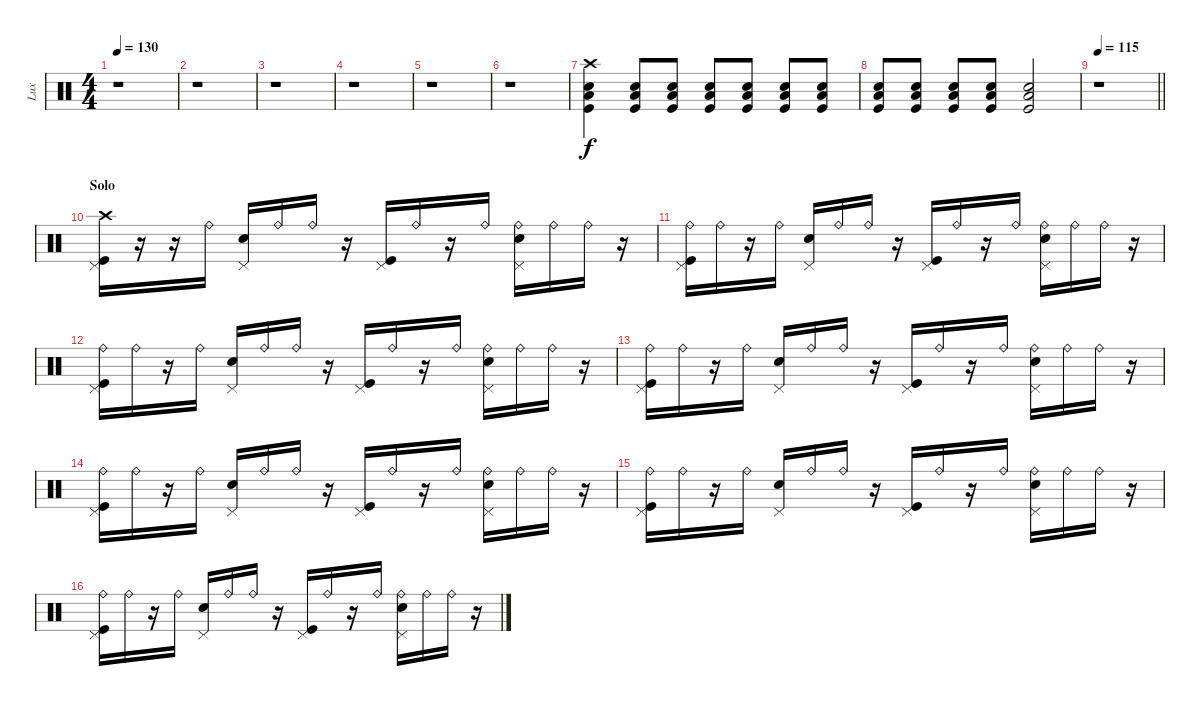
\track ("Lux" "Lux") {instrument percussion}
\staff {score}
\articulation defaults
\ts (4 4)
\tempo 130
\clef neutral
\ks c
r.1{dy fff} |
r.1 |
r.1 |
r.1 |
r.1 |
r.1 |
("Crash high (hit)" "Snare (hit) 2" "Low Tom (hit)" "Kick (hit)").4{dy f} ("Snare (hit) 2" "Low Tom (hit)" "Kick (hit)").8 ("Snare (hit) 2" "Low Tom (hit)" "Kick (hit)").8 ("Snare (hit) 2" "Low Tom (hit)" "Kick (hit)").8 ("Snare (hit) 2" "Low Tom (hit)" "Kick (hit)").8 ("Snare (hit) 2" "Low Tom (hit)" "Kick (hit)").8 ("Snare (hit) 2" "Low Tom (hit)" "Kick (hit)").8 |
("Snare (hit) 2" "Low Tom (hit)" "Kick (hit)").8 ("Snare (hit) 2" "Low Tom (hit)" "Kick (hit)").8 ("Snare (hit) 2" "Low Tom (hit)" "Kick (hit)").8 ("Snare (hit) 2" "Low Tom (hit)" "Kick (hit)").8 ("Snare (hit) 2" "Low Tom (hit)" "Kick (hit)").2 |
\tempo 115
\barLineRight lightlight
r.1 |
\section ("" "Solo")
("Crash high (hit)" "Pedal Hi-Hat (hit)" "Kick (hit)").16 r.16 r.16 "Ride (bell)".16 ("Pedal Hi-Hat (hit)" "Snare (hit) 2").16 "Ride (bell)".16 "Ride (bell)".16 r.16 ("Pedal Hi-Hat (hit)" "Kick (hit)").16 "Ride (bell)".16 r.16 "Ride (bell)".16 ("Ride (bell)" "Pedal Hi-Hat (hit)" "Snare (hit) 2").16 "Ride (bell)".16 "Ride (bell)".16 r.16 |
("Ride (bell)" "Pedal Hi-Hat (hit)" "Kick (hit)").16 "Ride (bell)".16 r.16 "Ride (bell)".16 ("Pedal Hi-Hat (hit)" "Snare (hit) 2").16 "Ride (bell)".16 "Ride (bell)".16 r.16 ("Pedal Hi-Hat (hit)" "Kick (hit)").16 "Ride (bell)".16 r.16 "Ride (bell)".16 ("Ride (bell)" "Pedal Hi-Hat (hit)" "Snare (hit) 2").16 "Ride (bell)".16 "Ride (bell)".16 r.16 |
("Ride (bell)" "Pedal Hi-Hat (hit)" "Kick (hit)").16 "Ride (bell)".16 r.16 "Ride (bell)".16 ("Pedal Hi-Hat (hit)" "Snare (hit) 2").16 "Ride (bell)".16 "Ride (bell)".16 r.16 ("Pedal Hi-Hat (hit)" "Kick (hit)").16 "Ride (bell)".16 r.16 "Ride (bell)".16 ("Ride (bell)" "Pedal Hi-Hat (hit)" "Snare (hit) 2").16 "Ride (bell)".16 "Ride (bell)".16 r.16 |
("Ride (bell)" "Pedal Hi-Hat (hit)" "Kick (hit)").16 "Ride (bell)".16 r.16 "Ride (bell)".16 ("Pedal Hi-Hat (hit)" "Snare (hit) 2").16 "Ride (bell)".16 "Ride (bell)".16 r.16 ("Pedal Hi-Hat (hit)" "Kick (hit)").16 "Ride (bell)".16 r.16 "Ride (bell)".16 ("Ride (bell)" "Pedal Hi-Hat (hit)" "Snare (hit) 2").16 "Ride (bell)".16 "Ride (bell)".16 r.16 |
("Ride (bell)" "Pedal Hi-Hat (hit)" "Kick (hit)").16 "Ride (bell)".16 r.16 "Ride (bell)".16 ("Pedal Hi-Hat (hit)" "Snare (hit) 2").16 "Ride (bell)".16 "Ride (bell)".16 r.16 ("Pedal Hi-Hat (hit)" "Kick (hit)").16 "Ride (bell)".16 r.16 "Ride (bell)".16 ("Ride (bell)" "Pedal Hi-Hat (hit)" "Snare (hit) 2").16 "Ride (bell)".16 "Ride (bell)".16 r.16 |
("Ride (bell)" "Pedal Hi-Hat (hit)" "Kick (hit)").16 "Ride (bell)".16 r.16 "Ride (bell)".16 ("Pedal Hi-Hat (hit)" "Snare (hit) 2").16 "Ride (bell)".16 "Ride (bell)".16 r.16 ("Pedal Hi-Hat (hit)" "Kick (hit)").16 "Ride (bell)".16 r.16 "Ride (bell)".16 ("Ride (bell)" "Pedal Hi-Hat (hit)" "Snare (hit) 2").16 "Ride (bell)".16 "Ride (bell)".16 r.16 |
("Ride (bell)" "Pedal Hi-Hat (hit)" "Kick (hit)").16 "Ride (bell)".16 r.16 "Ride (bell)".16 ("Pedal Hi-Hat (hit)" "Snare (hit) 2").16 "Ride (bell)".16 "Ride (bell)".16 r.16 ("Pedal Hi-Hat (hit)" "Kick (hit)").16 "Ride (bell)".16 r.16 "Ride (bell)".16 ("Ride (bell)" "Pedal Hi-Hat (hit)" "Snare (hit) 2").16 "Ride (bell)".16 "Ride (bell)".16 r.16
